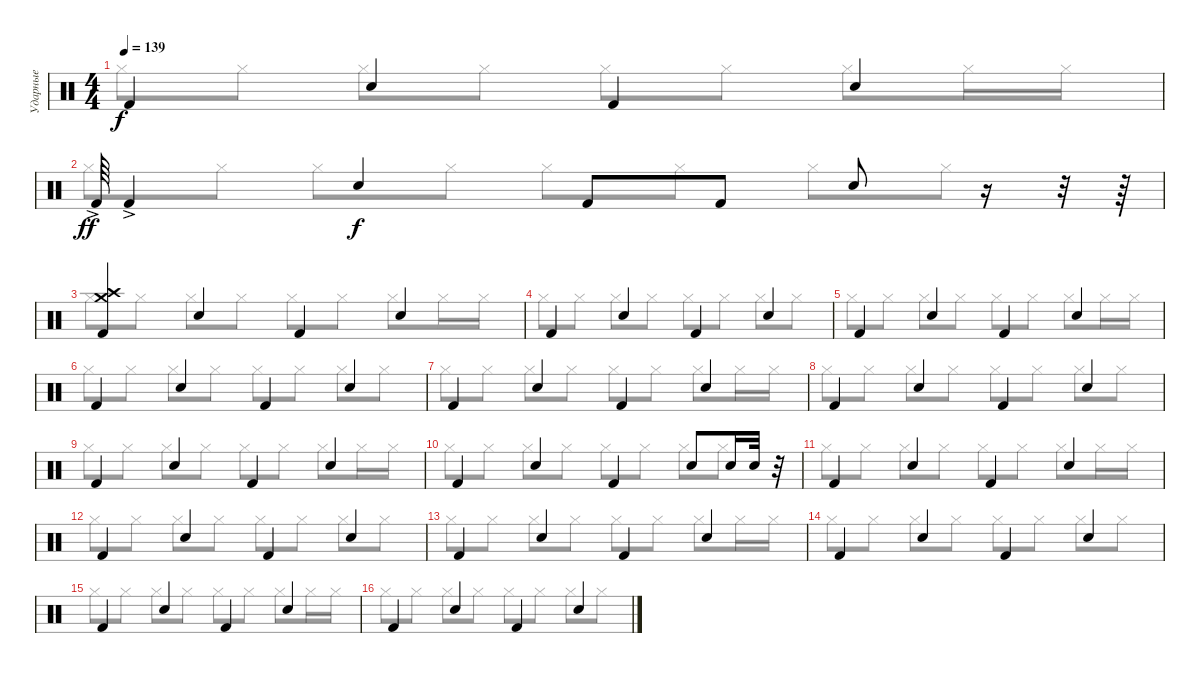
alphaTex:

\track ("Ударные" "Ударные") {instrument percussion}
\staff {score}
\articulation defaults
\voice
\ts (4 4)
\tempo 139
\clef neutral
\ks c "Kick (hit) 2".4{dy f} "Snare (hit) 2".4 "Kick (hit) 2".4 "Snare (hit) 2".4
|
"Kick (hit) 2"{ac}.64{dy ff} "Kick (hit) 2"{ac}.4 "Snare (hit) 2".4{dy f} "Kick (hit) 2".8 "Kick (hit) 2".8 "Snare (hit) 2".8 r.16 r.32 r.64 |
("Kick (hit) 2" "Crash high (hit)" "Crash medium (hit)").4 "Snare (hit) 2".4 "Kick (hit) 2".4 "Snare (hit) 2".4 |
"Kick (hit) 2".4 "Snare (hit) 2".4 "Kick (hit) 2".4 "Snare (hit) 2".4 |
"Kick (hit) 2".4 "Snare (hit) 2".4 "Kick (hit) 2".4 "Snare (hit) 2".4 |
"Kick (hit) 2".4 "Snare (hit) 2".4 "Kick (hit) 2".4 "Snare (hit) 2".4 |
"Kick (hit) 2".4 "Snare (hit) 2".4 "Kick (hit) 2".4 "Snare (hit) 2".4 |
"Kick (hit) 2".4 "Snare (hit) 2".4 "Kick (hit) 2".4 "Snare (hit) 2".4 |
"Kick (hit) 2".4 "Snare (hit) 2".4 "Kick (hit) 2".4 "Snare (hit) 2".4 |
"Kick (hit) 2".4 "Snare (hit) 2".4 "Kick (hit) 2".4 "Snare (hit) 2".8 "Snare (hit) 2".16 "Snare (hit) 2".32 r.32 |
"Kick (hit) 2".4 "Snare (hit) 2".4 "Kick (hit) 2".4 "Snare (hit) 2".4 |
"Kick (hit) 2".4 "Snare (hit) 2".4 "Kick (hit) 2".4 "Snare (hit) 2".4 |
"Kick (hit) 2".4 "Snare (hit) 2".4 "Kick (hit) 2".4 "Snare (hit) 2".4 |
"Kick (hit) 2".4 "Snare (hit) 2".4 "Kick (hit) 2".4 "Snare (hit) 2".4 |
"Kick (hit) 2".4 "Snare (hit) 2".4 "Kick (hit) 2".4 "Snare (hit) 2".4 |
"Kick (hit) 2".4 "Snare (hit) 2".4 "Kick (hit) 2".4 "Snare (hit) 2".4
\voice
\clef neutral
\ottava regular
\simile none
\ks c "Hi-Hat (closed)".8{dy f} "Hi-Hat (closed)".8 "Hi-Hat (closed)".8 "Hi-Hat (closed)".8 "Hi-Hat (closed)".8 "Hi-Hat (closed)".8 "Hi-Hat (closed)".8 "Hi-Hat (closed)".16 "Hi-Hat (closed)".16
|
"Hi-Hat (closed)".8 "Hi-Hat (closed)".8 "Hi-Hat (closed)".8 "Hi-Hat (closed)".8 "Hi-Hat (closed)".8 "Hi-Hat (closed)".8 "Hi-Hat (closed)".8 "Hi-Hat (closed)".8 |
"Hi-Hat (closed)".8 "Hi-Hat (closed)".8 "Hi-Hat (closed)".8 "Hi-Hat (closed)".8 "Hi-Hat (closed)".8 "Hi-Hat (closed)".8 "Hi-Hat (closed)".8 "Hi-Hat (closed)".16 "Hi-Hat (closed)".16 |
"Hi-Hat (closed)".8 "Hi-Hat (closed)".8 "Hi-Hat (closed)".8 "Hi-Hat (closed)".8 "Hi-Hat (closed)".8 "Hi-Hat (closed)".8 "Hi-Hat (closed)".8 "Hi-Hat (closed)".8 |
"Hi-Hat (closed)".8 "Hi-Hat (closed)".8 "Hi-Hat (closed)".8 "Hi-Hat (closed)".8 "Hi-Hat (closed)".8 "Hi-Hat (closed)".8 "Hi-Hat (closed)".8 "Hi-Hat (closed)".16 "Hi-Hat (closed)".16 |
"Hi-Hat (closed)".8 "Hi-Hat (closed)".8 "Hi-Hat (closed)".8 "Hi-Hat (closed)".8 "Hi-Hat (closed)".8 "Hi-Hat (closed)".8 "Hi-Hat (closed)".8 "Hi-Hat (closed)".8 |
"Hi-Hat (closed)".8 "Hi-Hat (closed)".8 "Hi-Hat (closed)".8 "Hi-Hat (closed)".8 "Hi-Hat (closed)".8 "Hi-Hat (closed)".8 "Hi-Hat (closed)".8 "Hi-Hat (closed)".16 "Hi-Hat (closed)".16 |
"Hi-Hat (closed)".8 "Hi-Hat (closed)".8 "Hi-Hat (closed)".8 "Hi-Hat (closed)".8 "Hi-Hat (closed)".8 "Hi-Hat (closed)".8 "Hi-Hat (closed)".8 "Hi-Hat (closed)".8 |
"Hi-Hat (closed)".8 "Hi-Hat (closed)".8 "Hi-Hat (closed)".8 "Hi-Hat (closed)".8 "Hi-Hat (closed)".8 "Hi-Hat (closed)".8 "Hi-Hat (closed)".8 "Hi-Hat (closed)".16 "Hi-Hat (closed)".16 |
"Hi-Hat (closed)".8 "Hi-Hat (closed)".8 "Hi-Hat (closed)".8 "Hi-Hat (closed)".8 "Hi-Hat (closed)".8 "Hi-Hat (closed)".8 "Hi-Hat (closed)".8 "Hi-Hat (closed)".8 |
"Hi-Hat (closed)".8 "Hi-Hat (closed)".8 "Hi-Hat (closed)".8 "Hi-Hat (closed)".8 "Hi-Hat (closed)".8 "Hi-Hat (closed)".8 "Hi-Hat (closed)".8 "Hi-Hat (closed)".16 "Hi-Hat (closed)".16 |
"Hi-Hat (closed)".8 "Hi-Hat (closed)".8 "Hi-Hat (closed)".8 "Hi-Hat (closed)".8 "Hi-Hat (closed)".8 "Hi-Hat (closed)".8 "Hi-Hat (closed)".8 "Hi-Hat (closed)".8 |
"Hi-Hat (closed)".8 "Hi-Hat (closed)".8 "Hi-Hat (closed)".8 "Hi-Hat (closed)".8 "Hi-Hat (closed)".8 "Hi-Hat (closed)".8 "Hi-Hat (closed)".8 "Hi-Hat (closed)".16 "Hi-Hat (closed)".16 |
"Hi-Hat (closed)".8 "Hi-Hat (closed)".8 "Hi-Hat (closed)".8 "Hi-Hat (closed)".8 "Hi-Hat (closed)".8 "Hi-Hat (closed)".8 "Hi-Hat (closed)".8 "Hi-Hat (closed)".8 |
"Hi-Hat (closed)".8 "Hi-Hat (closed)".8 "Hi-Hat (closed)".8 "Hi-Hat (closed)".8 "Hi-Hat (closed)".8 "Hi-Hat (closed)".8 "Hi-Hat (closed)".8 "Hi-Hat (closed)".16 "Hi-Hat (closed)".16 |
"Hi-Hat (closed)".8 "Hi-Hat (closed)".8 "Hi-Hat (closed)".8 "Hi-Hat (closed)".8 "Hi-Hat (closed)".8 "Hi-Hat (closed)".8 "Hi-Hat (closed)".8 "Hi-Hat (closed)".8
